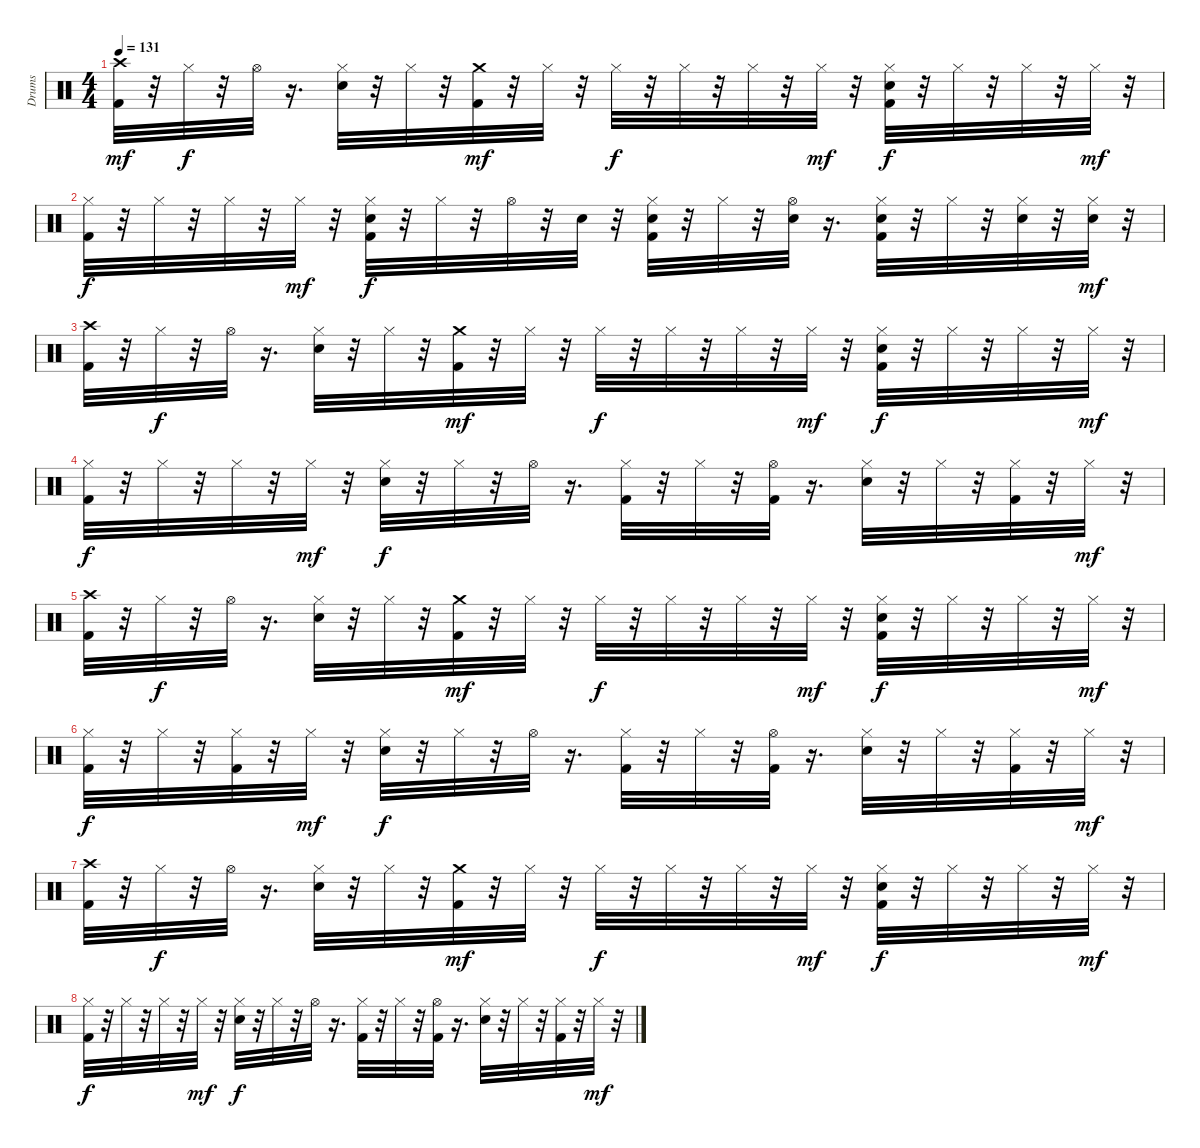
\track ("Drums" "Drums") {instrument percussion}
\staff {score}
\articulation defaults
\ts (4 4)
\tempo 131
\clef neutral
\ks c
("Kick (hit) 2" "Crash high (hit)").32{dy mf} r.32 "Hi-Hat (closed)".32{dy f} r.32 "Hi-Hat (open)".32 r.16{d} ("Snare (hit) 2" "Hi-Hat (closed)").32 r.32 "Hi-Hat (closed)".32 r.32 ("Crash medium (hit)" "Kick (hit) 2").32{dy mf} r.32 "Hi-Hat (closed)".32 r.32 "Hi-Hat (closed)".32{dy f} r.32 "Hi-Hat (closed)".32 r.32 "Hi-Hat (closed)".32 r.32 "Hi-Hat (closed)".32{dy mf} r.32 ("Snare (hit) 2" "Hi-Hat (closed)" "Kick (hit) 2").32{dy f} r.32 "Hi-Hat (closed)".32 r.32 "Hi-Hat (closed)".32 r.32 "Hi-Hat (closed)".32{dy mf} r.32 |
("Hi-Hat (closed)" "Kick (hit) 2").32{dy f} r.32 "Hi-Hat (closed)".32 r.32 "Hi-Hat (closed)".32 r.32 "Hi-Hat (closed)".32{dy mf} r.32 ("Hi-Hat (closed)" "Kick (hit) 2" "Snare (hit) 2").32{dy f} r.32 "Hi-Hat (closed)".32 r.32 "Hi-Hat (open)".32 r.32 "Snare (hit) 2".32 r.32 ("Snare (hit) 2" "Hi-Hat (closed)" "Kick (hit) 2").32 r.32 "Hi-Hat (closed)".32 r.32 ("Hi-Hat (open)" "Snare (hit) 2").32 r.16{d} ("Snare (hit) 2" "Hi-Hat (closed)" "Kick (hit) 2").32 r.32 "Hi-Hat (closed)".32 r.32 ("Snare (hit) 2" "Hi-Hat (closed)").32 r.32 ("Snare (hit) 2" "Hi-Hat (closed)").32{dy mf} r.32 |
("Kick (hit) 2" "Crash high (hit)").32 r.32 "Hi-Hat (closed)".32{dy f} r.32 "Hi-Hat (open)".32 r.16{d} ("Snare (hit) 2" "Hi-Hat (closed)").32 r.32 "Hi-Hat (closed)".32 r.32 ("Crash medium (hit)" "Kick (hit) 2").32{dy mf} r.32 "Hi-Hat (closed)".32 r.32 "Hi-Hat (closed)".32{dy f} r.32 "Hi-Hat (closed)".32 r.32 "Hi-Hat (closed)".32 r.32 "Hi-Hat (closed)".32{dy mf} r.32 ("Snare (hit) 2" "Hi-Hat (closed)" "Kick (hit) 2").32{dy f} r.32 "Hi-Hat (closed)".32 r.32 "Hi-Hat (closed)".32 r.32 "Hi-Hat (closed)".32{dy mf} r.32 |
("Kick (hit) 2" "Hi-Hat (closed)").32{dy f} r.32 "Hi-Hat (closed)".32 r.32 "Hi-Hat (closed)".32 r.32 "Hi-Hat (closed)".32{dy mf} r.32 ("Hi-Hat (closed)" "Snare (hit) 2").32{dy f} r.32 "Hi-Hat (closed)".32 r.32 "Hi-Hat (open)".32 r.16{d} ("Hi-Hat (closed)" "Kick (hit) 2").32 r.32 "Hi-Hat (closed)".32 r.32 ("Hi-Hat (open)" "Kick (hit) 2").32 r.16{d} ("Hi-Hat (closed)" "Snare (hit) 2").32 r.32 "Hi-Hat (closed)".32 r.32 ("Hi-Hat (closed)" "Kick (hit) 2").32 r.32 "Hi-Hat (closed)".32{dy mf} r.32 |
("Kick (hit) 2" "Crash high (hit)").32 r.32 "Hi-Hat (closed)".32{dy f} r.32 "Hi-Hat (open)".32 r.16{d} ("Snare (hit) 2" "Hi-Hat (closed)").32 r.32 "Hi-Hat (closed)".32 r.32 ("Crash medium (hit)" "Kick (hit) 2").32{dy mf} r.32 "Hi-Hat (closed)".32 r.32 "Hi-Hat (closed)".32{dy f} r.32 "Hi-Hat (closed)".32 r.32 "Hi-Hat (closed)".32 r.32 "Hi-Hat (closed)".32{dy mf} r.32 ("Snare (hit) 2" "Hi-Hat (closed)" "Kick (hit) 2").32{dy f} r.32 "Hi-Hat (closed)".32 r.32 "Hi-Hat (closed)".32 r.32 "Hi-Hat (closed)".32{dy mf} r.32 |
("Kick (hit) 2" "Hi-Hat (closed)").32{dy f} r.32 "Hi-Hat (closed)".32 r.32 ("Hi-Hat (closed)" "Kick (hit) 2").32 r.32 "Hi-Hat (closed)".32{dy mf} r.32 ("Hi-Hat (closed)" "Snare (hit) 2").32{dy f} r.32 "Hi-Hat (closed)".32 r.32 "Hi-Hat (open)".32 r.16{d} ("Hi-Hat (closed)" "Kick (hit) 2").32 r.32 "Hi-Hat (closed)".32 r.32 ("Hi-Hat (open)" "Kick (hit) 2").32 r.16{d} ("Hi-Hat (closed)" "Snare (hit) 2").32 r.32 "Hi-Hat (closed)".32 r.32 ("Kick (hit) 2" "Hi-Hat (closed)").32 r.32 "Hi-Hat (closed)".32{dy mf} r.32 |
("Kick (hit) 2" "Crash high (hit)").32 r.32 "Hi-Hat (closed)".32{dy f} r.32 "Hi-Hat (open)".32 r.16{d} ("Snare (hit) 2" "Hi-Hat (closed)").32 r.32 "Hi-Hat (closed)".32 r.32 ("Crash medium (hit)" "Kick (hit) 2").32{dy mf} r.32 "Hi-Hat (closed)".32 r.32 "Hi-Hat (closed)".32{dy f} r.32 "Hi-Hat (closed)".32 r.32 "Hi-Hat (closed)".32 r.32 "Hi-Hat (closed)".32{dy mf} r.32 ("Snare (hit) 2" "Hi-Hat (closed)" "Kick (hit) 2").32{dy f} r.32 "Hi-Hat (closed)".32 r.32 "Hi-Hat (closed)".32 r.32 "Hi-Hat (closed)".32{dy mf} r.32 |
("Kick (hit) 2" "Hi-Hat (closed)").32{dy f} r.32 "Hi-Hat (closed)".32 r.32 "Hi-Hat (closed)".32 r.32 "Hi-Hat (closed)".32{dy mf} r.32 ("Hi-Hat (closed)" "Snare (hit) 2").32{dy f} r.32 "Hi-Hat (closed)".32 r.32 "Hi-Hat (open)".32 r.16{d} ("Hi-Hat (closed)" "Kick (hit) 2").32 r.32 "Hi-Hat (closed)".32 r.32 ("Hi-Hat (open)" "Kick (hit) 2").32 r.16{d} ("Hi-Hat (closed)" "Snare (hit) 2").32 r.32 "Hi-Hat (closed)".32 r.32 ("Hi-Hat (closed)" "Kick (hit) 2").32 r.32 "Hi-Hat (closed)".32{dy mf} r.32
